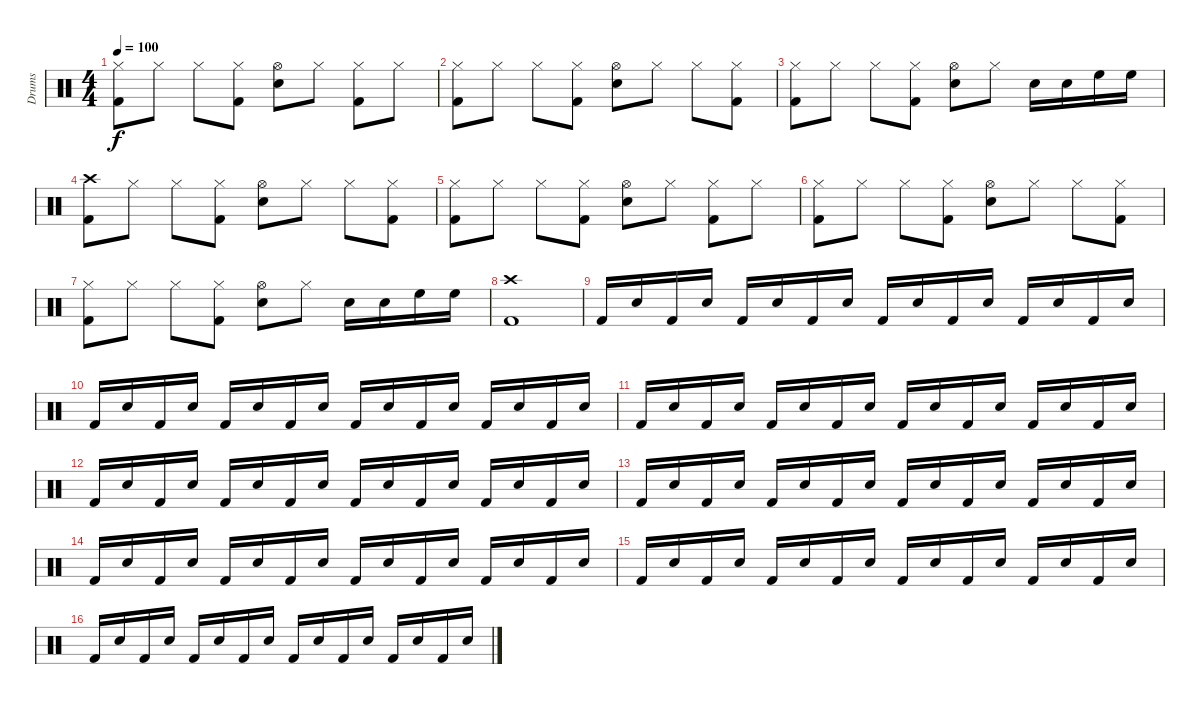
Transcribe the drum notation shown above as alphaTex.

\track ("Drums" "Drums") {instrument percussion}
\staff {score}
\articulation defaults
\ts (4 4)
\tempo 100
\clef neutral
\ks c
("Hi-Hat (closed)" "Kick (hit) 2").8{dy f} "Hi-Hat (closed)".8 "Hi-Hat (closed)".8 ("Hi-Hat (closed)" "Kick (hit) 2").8 ("Hi-Hat (open)" "Snare (hit) 2").8 "Hi-Hat (closed)".8 ("Hi-Hat (closed)" "Kick (hit) 2").8 "Hi-Hat (closed)".8 |
("Hi-Hat (closed)" "Kick (hit) 2").8 "Hi-Hat (closed)".8 "Hi-Hat (closed)".8 ("Hi-Hat (closed)" "Kick (hit) 2").8 ("Hi-Hat (open)" "Snare (hit) 2").8 "Hi-Hat (closed)".8 "Hi-Hat (closed)".8 ("Hi-Hat (closed)" "Kick (hit) 2").8 |
("Hi-Hat (closed)" "Kick (hit) 2").8 "Hi-Hat (closed)".8 "Hi-Hat (closed)".8 ("Hi-Hat (closed)" "Kick (hit) 2").8 ("Hi-Hat (open)" "Snare (hit) 2").8 "Hi-Hat (closed)".8 "Snare (hit) 2".16 "Snare (hit) 2".16 "High Floor Tom (hit)".16 "High Floor Tom (hit)".16 |
("Crash high (hit)" "Kick (hit) 2").8 "Hi-Hat (closed)".8 "Hi-Hat (closed)".8 ("Hi-Hat (closed)" "Kick (hit) 2").8 ("Hi-Hat (open)" "Snare (hit) 2").8 "Hi-Hat (closed)".8 "Hi-Hat (closed)".8 ("Hi-Hat (closed)" "Kick (hit) 2").8 |
("Hi-Hat (closed)" "Kick (hit) 2").8 "Hi-Hat (closed)".8 "Hi-Hat (closed)".8 ("Hi-Hat (closed)" "Kick (hit) 2").8 ("Hi-Hat (open)" "Snare (hit) 2").8 "Hi-Hat (closed)".8 ("Hi-Hat (closed)" "Kick (hit) 2").8 "Hi-Hat (closed)".8 |
("Hi-Hat (closed)" "Kick (hit) 2").8 "Hi-Hat (closed)".8 "Hi-Hat (closed)".8 ("Hi-Hat (closed)" "Kick (hit) 2").8 ("Hi-Hat (open)" "Snare (hit) 2").8 "Hi-Hat (closed)".8 "Hi-Hat (closed)".8 ("Hi-Hat (closed)" "Kick (hit) 2").8 |
("Hi-Hat (closed)" "Kick (hit) 2").8 "Hi-Hat (closed)".8 "Hi-Hat (closed)".8 ("Hi-Hat (closed)" "Kick (hit) 2").8 ("Hi-Hat (open)" "Snare (hit) 2").8 "Hi-Hat (closed)".8 "Snare (hit) 2".16 "Snare (hit) 2".16 "High Floor Tom (hit)".16 "High Floor Tom (hit)".16 |
("Crash high (hit)" "Kick (hit) 2").1 |
"Kick (hit) 2".16 "Snare (hit) 2".16 "Kick (hit) 2".16 "Snare (hit) 2".16 "Kick (hit) 2".16 "Snare (hit) 2".16 "Kick (hit) 2".16 "Snare (hit) 2".16 "Kick (hit) 2".16 "Snare (hit) 2".16 "Kick (hit) 2".16 "Snare (hit) 2".16 "Kick (hit) 2".16 "Snare (hit) 2".16 "Kick (hit) 2".16 "Snare (hit) 2".16 |
"Kick (hit) 2".16 "Snare (hit) 2".16 "Kick (hit) 2".16 "Snare (hit) 2".16 "Kick (hit) 2".16 "Snare (hit) 2".16 "Kick (hit) 2".16 "Snare (hit) 2".16 "Kick (hit) 2".16 "Snare (hit) 2".16 "Kick (hit) 2".16 "Snare (hit) 2".16 "Kick (hit) 2".16 "Snare (hit) 2".16 "Kick (hit) 2".16 "Snare (hit) 2".16 |
"Kick (hit) 2".16 "Snare (hit) 2".16 "Kick (hit) 2".16 "Snare (hit) 2".16 "Kick (hit) 2".16 "Snare (hit) 2".16 "Kick (hit) 2".16 "Snare (hit) 2".16 "Kick (hit) 2".16 "Snare (hit) 2".16 "Kick (hit) 2".16 "Snare (hit) 2".16 "Kick (hit) 2".16 "Snare (hit) 2".16 "Kick (hit) 2".16 "Snare (hit) 2".16 |
"Kick (hit) 2".16 "Snare (hit) 2".16 "Kick (hit) 2".16 "Snare (hit) 2".16 "Kick (hit) 2".16 "Snare (hit) 2".16 "Kick (hit) 2".16 "Snare (hit) 2".16 "Kick (hit) 2".16 "Snare (hit) 2".16 "Kick (hit) 2".16 "Snare (hit) 2".16 "Kick (hit) 2".16 "Snare (hit) 2".16 "Kick (hit) 2".16 "Snare (hit) 2".16 |
"Kick (hit) 2".16 "Snare (hit) 2".16 "Kick (hit) 2".16 "Snare (hit) 2".16 "Kick (hit) 2".16 "Snare (hit) 2".16 "Kick (hit) 2".16 "Snare (hit) 2".16 "Kick (hit) 2".16 "Snare (hit) 2".16 "Kick (hit) 2".16 "Snare (hit) 2".16 "Kick (hit) 2".16 "Snare (hit) 2".16 "Kick (hit) 2".16 "Snare (hit) 2".16 |
"Kick (hit) 2".16 "Snare (hit) 2".16 "Kick (hit) 2".16 "Snare (hit) 2".16 "Kick (hit) 2".16 "Snare (hit) 2".16 "Kick (hit) 2".16 "Snare (hit) 2".16 "Kick (hit) 2".16 "Snare (hit) 2".16 "Kick (hit) 2".16 "Snare (hit) 2".16 "Kick (hit) 2".16 "Snare (hit) 2".16 "Kick (hit) 2".16 "Snare (hit) 2".16 |
"Kick (hit) 2".16 "Snare (hit) 2".16 "Kick (hit) 2".16 "Snare (hit) 2".16 "Kick (hit) 2".16 "Snare (hit) 2".16 "Kick (hit) 2".16 "Snare (hit) 2".16 "Kick (hit) 2".16 "Snare (hit) 2".16 "Kick (hit) 2".16 "Snare (hit) 2".16 "Kick (hit) 2".16 "Snare (hit) 2".16 "Kick (hit) 2".16 "Snare (hit) 2".16 |
"Kick (hit) 2".16 "Snare (hit) 2".16 "Kick (hit) 2".16 "Snare (hit) 2".16 "Kick (hit) 2".16 "Snare (hit) 2".16 "Kick (hit) 2".16 "Snare (hit) 2".16 "Kick (hit) 2".16 "Snare (hit) 2".16 "Kick (hit) 2".16 "Snare (hit) 2".16 "Kick (hit) 2".16 "Snare (hit) 2".16 "Kick (hit) 2".16 "Snare (hit) 2".16
